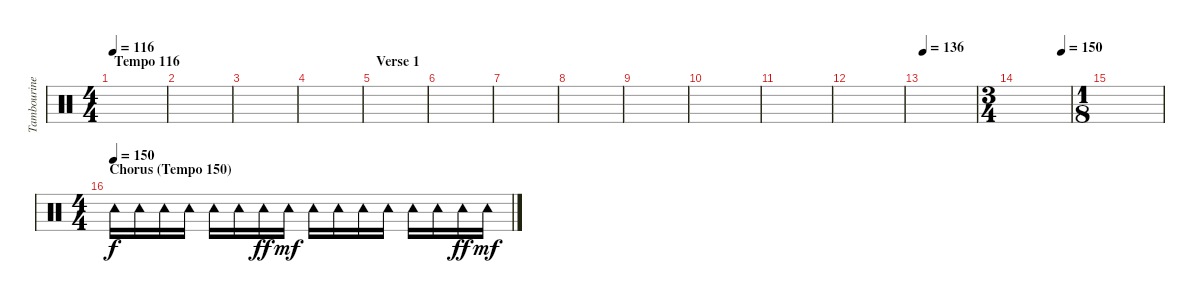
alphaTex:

\track ("Tambourine" "Tambourine") {instrument percussion}
\staff {score}
\articulation defaults
\ts (4 4)
\section ("" "Tempo 116")
\tempo 116
\clef neutral
\ks c
|
|
|
|
\section ("" "Verse 1")
|
|
|
|
|
|
|
|
\tempo 136
|
\ts (3 4)
\tempo (150 0.8333333333333334)
|
\ts (1 8)
|
\ts (4 4)
\section ("" "Chorus (Tempo 150)")
\tempo (150)
"Tambourine (hit)".16 "Tambourine (hit)".16 "Tambourine (hit)".16 "Tambourine (hit)".16 "Tambourine (hit)".16 "Tambourine (hit)".16 "Tambourine (hit)".16{dy ff} "Tambourine (hit)".16{dy mf} "Tambourine (hit)".16 "Tambourine (hit)".16 "Tambourine (hit)".16 "Tambourine (hit)".16 "Tambourine (hit)".16 "Tambourine (hit)".16 "Tambourine (hit)".16{dy ff} "Tambourine (hit)".16{dy mf}
